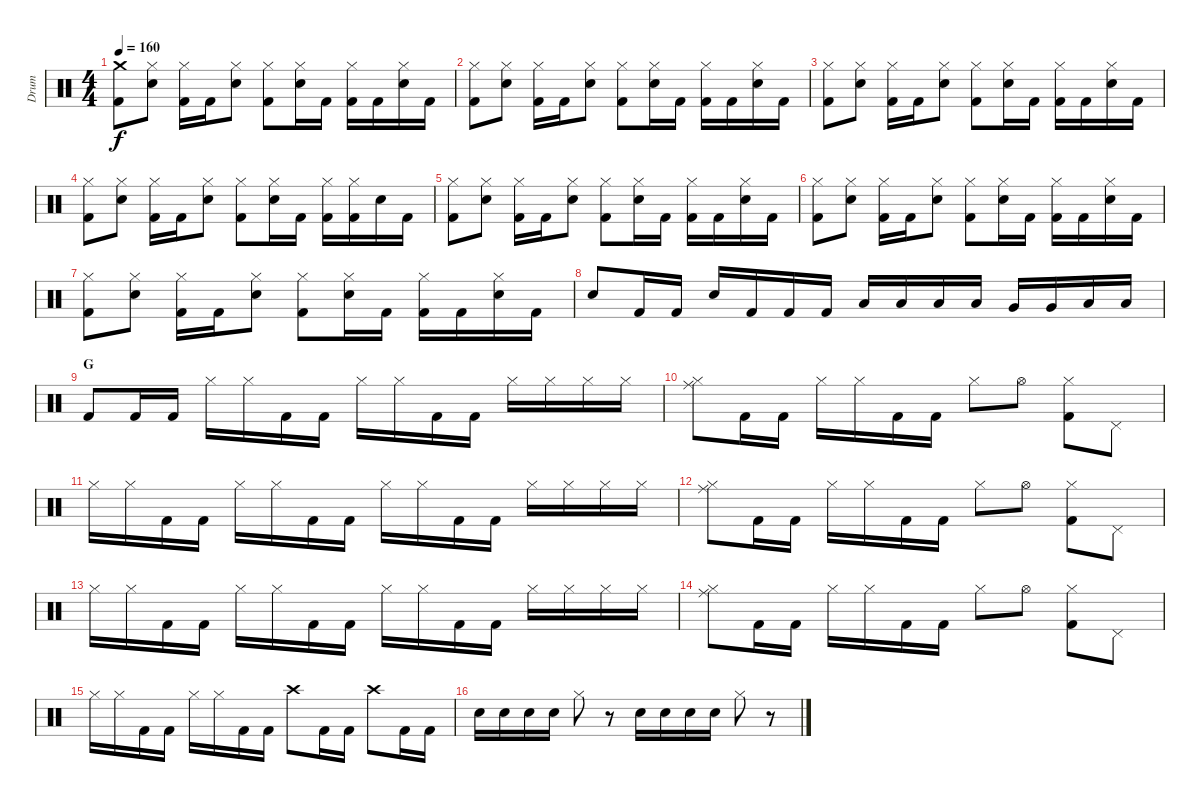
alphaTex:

\track ("Drum" "Drum") {instrument percussion}
\staff {score}
\articulation defaults
\ts (4 4)
\tempo 160
\clef neutral
\ks c
("Crash medium (hit)" "Kick (hit) 2").8{dy f} ("Hi-Hat (closed)" "Snare (hit) 2").8 ("Hi-Hat (closed)" "Kick (hit) 2").16 "Kick (hit) 2".16 ("Hi-Hat (closed)" "Snare (hit) 2").8 ("Hi-Hat (closed)" "Kick (hit) 2").8 ("Hi-Hat (closed)" "Snare (hit) 2").16 "Kick (hit) 2".16 ("Hi-Hat (closed)" "Kick (hit) 2").16 "Kick (hit) 2".16 ("Hi-Hat (closed)" "Snare (hit) 2").16 "Kick (hit) 2".16 |
("Hi-Hat (closed)" "Kick (hit) 2").8 ("Hi-Hat (closed)" "Snare (hit) 2").8 ("Hi-Hat (closed)" "Kick (hit) 2").16 "Kick (hit) 2".16 ("Hi-Hat (closed)" "Snare (hit) 2").8 ("Hi-Hat (closed)" "Kick (hit) 2").8 ("Hi-Hat (closed)" "Snare (hit) 2").16 "Kick (hit) 2".16 ("Hi-Hat (closed)" "Kick (hit) 2").16 "Kick (hit) 2".16 ("Hi-Hat (closed)" "Snare (hit) 2").16 "Kick (hit) 2".16 |
("Hi-Hat (closed)" "Kick (hit) 2").8 ("Hi-Hat (closed)" "Snare (hit) 2").8 ("Hi-Hat (closed)" "Kick (hit) 2").16 "Kick (hit) 2".16 ("Hi-Hat (closed)" "Snare (hit) 2").8 ("Hi-Hat (closed)" "Kick (hit) 2").8 ("Hi-Hat (closed)" "Snare (hit) 2").16 "Kick (hit) 2".16 ("Hi-Hat (closed)" "Kick (hit) 2").16 "Kick (hit) 2".16 ("Hi-Hat (closed)" "Snare (hit) 2").16 "Kick (hit) 2".16 |
("Hi-Hat (closed)" "Kick (hit) 2").8 ("Hi-Hat (closed)" "Snare (hit) 2").8 ("Hi-Hat (closed)" "Kick (hit) 2").16 "Kick (hit) 2".16 ("Hi-Hat (closed)" "Snare (hit) 2").8 ("Hi-Hat (closed)" "Kick (hit) 2").8 ("Hi-Hat (closed)" "Snare (hit) 2").16 "Kick (hit) 2".16 ("Hi-Hat (closed)" "Kick (hit) 2").16 ("Hi-Hat (closed)" "Kick (hit) 2").16 "Snare (hit) 2".16 "Kick (hit) 2".16 |
("Hi-Hat (closed)" "Kick (hit) 2").8 ("Hi-Hat (closed)" "Snare (hit) 2").8 ("Hi-Hat (closed)" "Kick (hit) 2").16 "Kick (hit) 2".16 ("Hi-Hat (closed)" "Snare (hit) 2").8 ("Hi-Hat (closed)" "Kick (hit) 2").8 ("Hi-Hat (closed)" "Snare (hit) 2").16 "Kick (hit) 2".16 ("Hi-Hat (closed)" "Kick (hit) 2").16 "Kick (hit) 2".16 ("Hi-Hat (closed)" "Snare (hit) 2").16 "Kick (hit) 2".16 |
("Hi-Hat (closed)" "Kick (hit) 2").8 ("Hi-Hat (closed)" "Snare (hit) 2").8 ("Hi-Hat (closed)" "Kick (hit) 2").16 "Kick (hit) 2".16 ("Hi-Hat (closed)" "Snare (hit) 2").8 ("Hi-Hat (closed)" "Kick (hit) 2").8 ("Hi-Hat (closed)" "Snare (hit) 2").16 "Kick (hit) 2".16 ("Hi-Hat (closed)" "Kick (hit) 2").16 "Kick (hit) 2".16 ("Hi-Hat (closed)" "Snare (hit) 2").16 "Kick (hit) 2".16 |
("Hi-Hat (closed)" "Kick (hit) 2").8 ("Hi-Hat (closed)" "Snare (hit) 2").8 ("Hi-Hat (closed)" "Kick (hit) 2").16 "Kick (hit) 2".16 ("Hi-Hat (closed)" "Snare (hit) 2").8 ("Hi-Hat (closed)" "Kick (hit) 2").8 ("Hi-Hat (closed)" "Snare (hit) 2").16 "Kick (hit) 2".16 ("Hi-Hat (closed)" "Kick (hit) 2").16 "Kick (hit) 2".16 ("Hi-Hat (closed)" "Snare (hit) 2").16 "Kick (hit) 2".16 |
"Snare (hit) 2".8 "Kick (hit) 2".16 "Kick (hit) 2".16 "Snare (hit) 2".16 "Kick (hit) 2".16 "Kick (hit) 2".16 "Kick (hit) 2".16 "Low Tom (hit)".16 "Low Tom (hit)".16 "Low Tom (hit)".16 "Low Tom (hit)".16 "Very Low Tom (hit)".16 "Very Low Tom (hit)".16 "Low Floor Tom (hit)".16 "Low Floor Tom (hit)".16 |
\section ("" "G")
"Kick (hit) 2".8 "Kick (hit) 2".16 "Kick (hit) 2".16 "Hi-Hat (closed)".16 "Hi-Hat (closed)".16 "Kick (hit) 2".16 "Kick (hit) 2".16 "Hi-Hat (closed)".16 "Hi-Hat (closed)".16 "Kick (hit) 2".16 "Kick (hit) 2".16 "Hi-Hat (closed)".16 "Hi-Hat (closed)".16 "Hi-Hat (closed)".16 "Hi-Hat (closed)".16 |
("Ride (middle)" "Hi-Hat (closed)").8 "Kick (hit) 2".16 "Kick (hit) 2".16 "Hi-Hat (closed)".16 "Hi-Hat (closed)".16 "Kick (hit) 2".16 "Kick (hit) 2".16 "Hi-Hat (closed)".8 "Hi-Hat (open)".8 ("Hi-Hat (closed)" "Kick (hit) 2").8 "Pedal Hi-Hat (hit)".8 |
"Hi-Hat (closed)".16 "Hi-Hat (closed)".16 "Kick (hit) 2".16 "Kick (hit) 2".16 "Hi-Hat (closed)".16 "Hi-Hat (closed)".16 "Kick (hit) 2".16 "Kick (hit) 2".16 "Hi-Hat (closed)".16 "Hi-Hat (closed)".16 "Kick (hit) 2".16 "Kick (hit) 2".16 "Hi-Hat (closed)".16 "Hi-Hat (closed)".16 "Hi-Hat (closed)".16 "Hi-Hat (closed)".16 |
("Ride (middle)" "Hi-Hat (closed)").8 "Kick (hit) 2".16 "Kick (hit) 2".16 "Hi-Hat (closed)".16 "Hi-Hat (closed)".16 "Kick (hit) 2".16 "Kick (hit) 2".16 "Hi-Hat (closed)".8 "Hi-Hat (open)".8 ("Hi-Hat (closed)" "Kick (hit) 2").8 "Pedal Hi-Hat (hit)".8 |
"Hi-Hat (closed)".16 "Hi-Hat (closed)".16 "Kick (hit) 2".16 "Kick (hit) 2".16 "Hi-Hat (closed)".16 "Hi-Hat (closed)".16 "Kick (hit) 2".16 "Kick (hit) 2".16 "Hi-Hat (closed)".16 "Hi-Hat (closed)".16 "Kick (hit) 2".16 "Kick (hit) 2".16 "Hi-Hat (closed)".16 "Hi-Hat (closed)".16 "Hi-Hat (closed)".16 "Hi-Hat (closed)".16 |
("Ride (middle)" "Hi-Hat (closed)").8 "Kick (hit) 2".16 "Kick (hit) 2".16 "Hi-Hat (closed)".16 "Hi-Hat (closed)".16 "Kick (hit) 2".16 "Kick (hit) 2".16 "Hi-Hat (closed)".8 "Hi-Hat (open)".8 ("Hi-Hat (closed)" "Kick (hit) 2").8 "Pedal Hi-Hat (hit)".8 |
"Hi-Hat (closed)".16 "Hi-Hat (closed)".16 "Kick (hit) 2".16 "Kick (hit) 2".16 "Hi-Hat (closed)".16 "Hi-Hat (closed)".16 "Kick (hit) 2".16 "Kick (hit) 2".16 "Crash high (hit)".8 "Kick (hit) 2".16 "Kick (hit) 2".16 "Crash high (hit)".8 "Kick (hit) 2".16 "Kick (hit) 2".16 |
"Snare (hit) 2".16 "Snare (hit) 2".16 "Snare (hit) 2".16 "Snare (hit) 2".16 "Hi-Hat (closed)".8 r.8 "Snare (hit) 2".16 "Snare (hit) 2".16 "Snare (hit) 2".16 "Snare (hit) 2".16 "Hi-Hat (closed)".8 r.8
